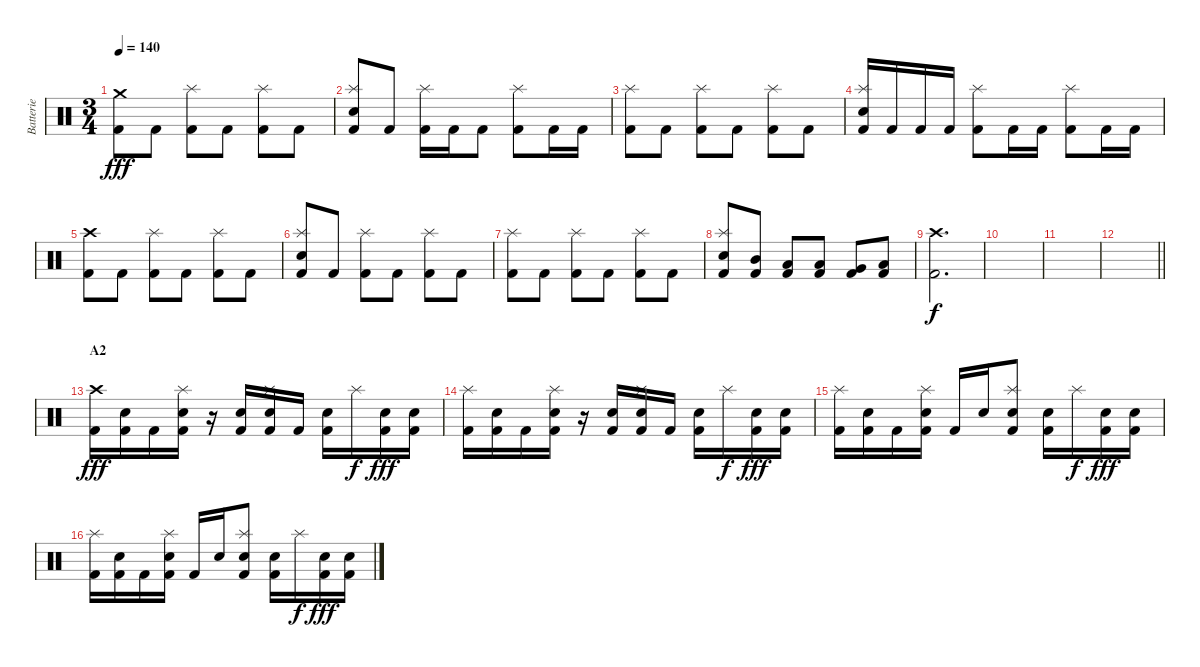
\track ("Batterie" "Batterie") {instrument percussion}
\staff {score}
\articulation defaults
\ts (3 4)
\tempo 140
\clef neutral
\ks c
("Crash medium (hit)" "Kick (hit) 2").8{dy fff} "Kick (hit) 2".8 ("Splash (hit)" "Kick (hit) 2").8 "Kick (hit) 2".8 ("Splash (hit)" "Kick (hit) 2").8 "Kick (hit) 2".8 |
("Splash (hit)" "Electric Snare (hit)" "Kick (hit) 2").8 "Kick (hit) 2".8 ("Splash (hit)" "Kick (hit) 2").16 "Kick (hit) 2".16 "Kick (hit) 2".8 ("Splash (hit)" "Kick (hit) 2").8 "Kick (hit) 2".16 "Kick (hit) 2".16 |
("Splash (hit)" "Kick (hit) 2").8 "Kick (hit) 2".8 ("Splash (hit)" "Kick (hit) 2").8 "Kick (hit) 2".8 ("Splash (hit)" "Kick (hit) 2").8 "Kick (hit) 2".8 |
("Splash (hit)" "Electric Snare (hit)" "Kick (hit) 2").16 "Kick (hit) 2".16 "Kick (hit) 2".16 "Kick (hit) 2".16 ("Splash (hit)" "Kick (hit) 2").8 "Kick (hit) 2".16 "Kick (hit) 2".16 ("Splash (hit)" "Kick (hit) 2").8 "Kick (hit) 2".16 "Kick (hit) 2".16 |
("Crash high (hit)" "Kick (hit) 2").8 "Kick (hit) 2".8 ("Splash (hit)" "Kick (hit) 2").8 "Kick (hit) 2".8 ("Splash (hit)" "Kick (hit) 2").8 "Kick (hit) 2".8 |
("Splash (hit)" "Electric Snare (hit)" "Kick (hit) 2").8 "Kick (hit) 2".8 ("Splash (hit)" "Kick (hit) 2").8 "Kick (hit) 2".8 ("Splash (hit)" "Kick (hit) 2").8 "Kick (hit) 2".8 |
("Splash (hit)" "Kick (hit) 2").8 "Kick (hit) 2".8 ("Splash (hit)" "Kick (hit) 2").8 "Kick (hit) 2".8 ("Splash (hit)" "Kick (hit) 2").8 "Kick (hit) 2".8 |
("Splash (hit)" "Electric Snare (hit)" "Kick (hit) 2").8 ("Mid Tom (hit)" "Kick (hit) 2").8 ("Low Tom (hit)" "Kick (hit) 2").8 ("Low Tom (hit)" "Kick (hit) 2").8 ("Very Low Tom (hit)" "Kick (hit) 2").8 ("Low Floor Tom (hit)" "Kick (hit) 2").8 |
("Crash high (hit)" "Kick (hit) 2").2{d dy f} |
|
|
\barLineRight lightlight
|
\section ("" "A2")
("Crash high (hit)" "Kick (hit) 2").16{dy fff} ("Electric Snare (hit)" "Kick (hit) 2").16 "Kick (hit) 2".16 ("Splash (hit)" "Electric Snare (hit)" "Kick (hit) 2").16 r.16 ("Electric Snare (hit)" "Kick (hit) 2").16 ("Splash (hit)" "Electric Snare (hit)" "Kick (hit) 2").16 "Kick (hit) 2".16 ("Electric Snare (hit)" "Kick (hit) 2").16 "Splash (hit)".16{dy f} ("Electric Snare (hit)" "Kick (hit) 2").16{dy fff} ("Electric Snare (hit)" "Kick (hit) 2").16 |
("Splash (hit)" "Kick (hit) 2").16 ("Electric Snare (hit)" "Kick (hit) 2").16 "Kick (hit) 2".16 ("Splash (hit)" "Electric Snare (hit)" "Kick (hit) 2").16 r.16 ("Electric Snare (hit)" "Kick (hit) 2").16 ("Splash (hit)" "Electric Snare (hit)" "Kick (hit) 2").16 "Kick (hit) 2".16 ("Electric Snare (hit)" "Kick (hit) 2").16 "Splash (hit)".16{dy f} ("Electric Snare (hit)" "Kick (hit) 2").16{dy fff} ("Electric Snare (hit)" "Kick (hit) 2").16 |
("Splash (hit)" "Kick (hit) 2").16 ("Electric Snare (hit)" "Kick (hit) 2").16 "Kick (hit) 2".16 ("Splash (hit)" "Electric Snare (hit)" "Kick (hit) 2").16 "Kick (hit) 2".16 "Electric Snare (hit)".16 ("Splash (hit)" "Electric Snare (hit)" "Kick (hit) 2").8 ("Electric Snare (hit)" "Kick (hit) 2").16 "Splash (hit)".16{dy f} ("Electric Snare (hit)" "Kick (hit) 2").16{dy fff} ("Electric Snare (hit)" "Kick (hit) 2").16 |
("Splash (hit)" "Kick (hit) 2").16 ("Electric Snare (hit)" "Kick (hit) 2").16 "Kick (hit) 2".16 ("Splash (hit)" "Electric Snare (hit)" "Kick (hit) 2").16 "Kick (hit) 2".16 "Electric Snare (hit)".16 ("Splash (hit)" "Electric Snare (hit)" "Kick (hit) 2").8 ("Electric Snare (hit)" "Kick (hit) 2").16 "Splash (hit)".16{dy f} ("Electric Snare (hit)" "Kick (hit) 2").16{dy fff} ("Electric Snare (hit)" "Kick (hit) 2").16
